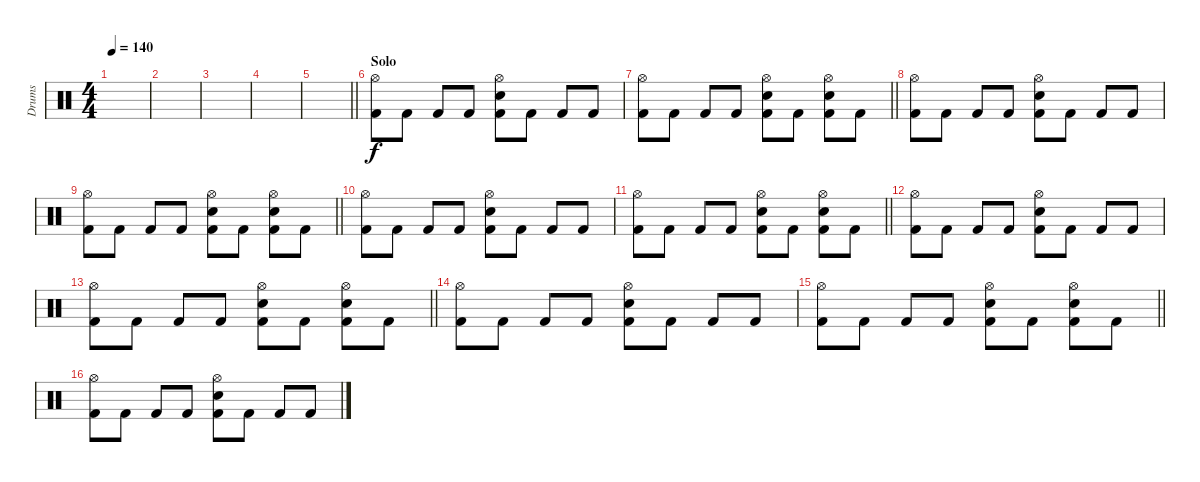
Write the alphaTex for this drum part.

\track ("Drums" "Drums") {instrument percussion}
\staff {score}
\articulation defaults
\ts (4 4)
\tempo 140
\clef neutral
\ks c
|
|
|
|
\barLineRight lightlight
|
\section ("" "Solo")
("Hi-Hat (open)" "Kick (hit) 2").8{volume 13} "Kick (hit) 2".8 "Kick (hit) 2".8 "Kick (hit) 2".8 ("Hi-Hat (open)" "Snare (hit) 2" "Kick (hit) 2").8 "Kick (hit) 2".8 "Kick (hit) 2".8 "Kick (hit) 2".8 |
\barLineRight lightlight
("Hi-Hat (open)" "Kick (hit) 2").8 "Kick (hit) 2".8 "Kick (hit) 2".8 "Kick (hit) 2".8 ("Hi-Hat (open)" "Snare (hit) 2" "Kick (hit) 2").8 "Kick (hit) 2".8 ("Hi-Hat (open)" "Snare (hit) 2" "Kick (hit) 2").8 "Kick (hit) 2".8 |
("Hi-Hat (open)" "Kick (hit) 2").8 "Kick (hit) 2".8 "Kick (hit) 2".8 "Kick (hit) 2".8 ("Hi-Hat (open)" "Snare (hit) 2" "Kick (hit) 2").8 "Kick (hit) 2".8 "Kick (hit) 2".8 "Kick (hit) 2".8 |
\barLineRight lightlight
("Hi-Hat (open)" "Kick (hit) 2").8 "Kick (hit) 2".8 "Kick (hit) 2".8 "Kick (hit) 2".8 ("Hi-Hat (open)" "Snare (hit) 2" "Kick (hit) 2").8 "Kick (hit) 2".8 ("Hi-Hat (open)" "Snare (hit) 2" "Kick (hit) 2").8 "Kick (hit) 2".8 |
("Hi-Hat (open)" "Kick (hit) 2").8 "Kick (hit) 2".8 "Kick (hit) 2".8 "Kick (hit) 2".8 ("Hi-Hat (open)" "Snare (hit) 2" "Kick (hit) 2").8 "Kick (hit) 2".8 "Kick (hit) 2".8 "Kick (hit) 2".8 |
\barLineRight lightlight
("Hi-Hat (open)" "Kick (hit) 2").8 "Kick (hit) 2".8 "Kick (hit) 2".8 "Kick (hit) 2".8 ("Hi-Hat (open)" "Snare (hit) 2" "Kick (hit) 2").8 "Kick (hit) 2".8 ("Hi-Hat (open)" "Snare (hit) 2" "Kick (hit) 2").8 "Kick (hit) 2".8 |
("Hi-Hat (open)" "Kick (hit) 2").8 "Kick (hit) 2".8 "Kick (hit) 2".8 "Kick (hit) 2".8 ("Hi-Hat (open)" "Snare (hit) 2" "Kick (hit) 2").8 "Kick (hit) 2".8 "Kick (hit) 2".8 "Kick (hit) 2".8 |
\barLineRight lightlight
("Hi-Hat (open)" "Kick (hit) 2").8 "Kick (hit) 2".8 "Kick (hit) 2".8 "Kick (hit) 2".8 ("Hi-Hat (open)" "Snare (hit) 2" "Kick (hit) 2").8 "Kick (hit) 2".8 ("Hi-Hat (open)" "Snare (hit) 2" "Kick (hit) 2").8 "Kick (hit) 2".8 |
("Hi-Hat (open)" "Kick (hit) 2").8 "Kick (hit) 2".8 "Kick (hit) 2".8 "Kick (hit) 2".8 ("Hi-Hat (open)" "Snare (hit) 2" "Kick (hit) 2").8 "Kick (hit) 2".8 "Kick (hit) 2".8 "Kick (hit) 2".8 |
\barLineRight lightlight
("Hi-Hat (open)" "Kick (hit) 2").8 "Kick (hit) 2".8 "Kick (hit) 2".8 "Kick (hit) 2".8 ("Hi-Hat (open)" "Snare (hit) 2" "Kick (hit) 2").8 "Kick (hit) 2".8 ("Hi-Hat (open)" "Snare (hit) 2" "Kick (hit) 2").8 "Kick (hit) 2".8 |
("Hi-Hat (open)" "Kick (hit) 2").8 "Kick (hit) 2".8 "Kick (hit) 2".8 "Kick (hit) 2".8 ("Hi-Hat (open)" "Snare (hit) 2" "Kick (hit) 2").8 "Kick (hit) 2".8 "Kick (hit) 2".8 "Kick (hit) 2".8
